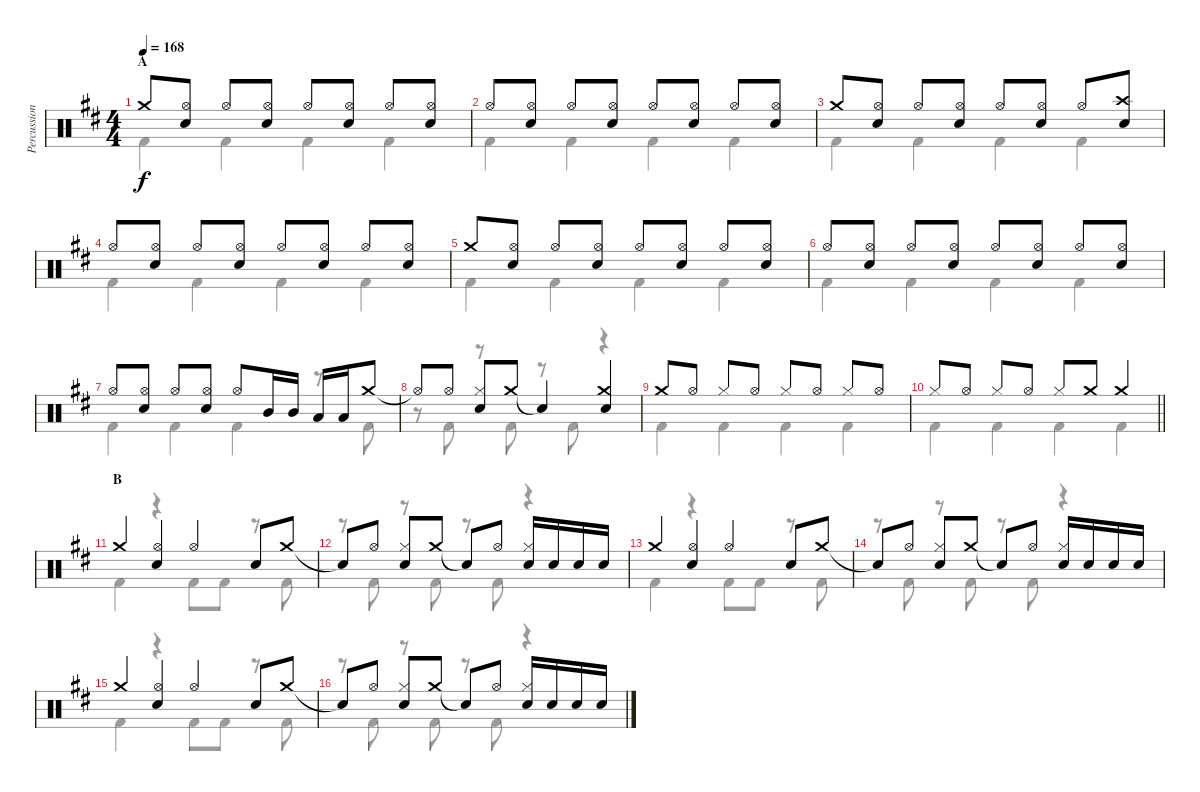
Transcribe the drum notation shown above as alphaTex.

\track ("Percussion" "Percussion") {instrument percussion}
\staff {score}
\articulation defaults
\voice
\ts (4 4)
\section ("" "A")
\tempo 168
\clef neutral
\ks d "Crash medium (hit)".8{dy f}
("Hi-Hat (open)" "Snare (hit) 2").8 "Hi-Hat (open)".8 ("Hi-Hat (open)" "Snare (hit) 2").8 "Hi-Hat (open)".8 ("Hi-Hat (open)" "Snare (hit) 2").8 "Hi-Hat (open)".8 ("Hi-Hat (open)" "Snare (hit) 2").8 |
"Hi-Hat (open)".8 ("Hi-Hat (open)" "Snare (hit) 2").8 "Hi-Hat (open)".8 ("Hi-Hat (open)" "Snare (hit) 2").8 "Hi-Hat (open)".8 ("Hi-Hat (open)" "Snare (hit) 2").8 "Hi-Hat (open)".8 ("Hi-Hat (open)" "Snare (hit) 2").8 |
"Crash medium (hit)".8 ("Hi-Hat (open)" "Snare (hit) 2").8 "Hi-Hat (open)".8 ("Hi-Hat (open)" "Snare (hit) 2").8 "Hi-Hat (open)".8 ("Hi-Hat (open)" "Snare (hit) 2").8 "Hi-Hat (open)".8 ("Crash high (hit)" "Snare (hit) 2").8 |
"Hi-Hat (open)".8 ("Hi-Hat (open)" "Snare (hit) 2").8 "Hi-Hat (open)".8 ("Hi-Hat (open)" "Snare (hit) 2").8 "Hi-Hat (open)".8 ("Hi-Hat (open)" "Snare (hit) 2").8 "Hi-Hat (open)".8 ("Hi-Hat (open)" "Snare (hit) 2").8 |
"Crash medium (hit)".8 ("Hi-Hat (open)" "Snare (hit) 2").8 "Hi-Hat (open)".8 ("Hi-Hat (open)" "Snare (hit) 2").8 "Hi-Hat (open)".8 ("Hi-Hat (open)" "Snare (hit) 2").8 "Hi-Hat (open)".8 ("Hi-Hat (open)" "Snare (hit) 2").8 |
"Hi-Hat (open)".8 ("Hi-Hat (open)" "Snare (hit) 2").8 "Hi-Hat (open)".8 ("Hi-Hat (open)" "Snare (hit) 2").8 "Hi-Hat (open)".8 ("Hi-Hat (open)" "Snare (hit) 2").8 "Hi-Hat (open)".8 ("Hi-Hat (open)" "Snare (hit) 2").8 |
"Hi-Hat (open)".8 ("Hi-Hat (open)" "Snare (hit) 2").8 "Hi-Hat (open)".8 ("Hi-Hat (open)" "Snare (hit) 2").8 "Hi-Hat (open)".8 "Mid Tom (hit)".16 "Mid Tom (hit)".16 "Low Tom (hit)".16 "Low Tom (hit)".16 "Crash medium (hit)".8 |
"Hi-Hat (open)"{t}.8 "Hi-Hat (open)".8 ("Hi-Hat (closed)" "Snare (hit) 2").8 "Crash medium (hit)".8 "Snare (hit)"{t}.4 ("Crash medium (hit)" "Snare (hit) 2").4 |
"Crash medium (hit)".8 "Hi-Hat (open)".8 "Hi-Hat (closed)".8 "Hi-Hat (open)".8 "Hi-Hat (closed)".8 "Hi-Hat (open)".8 "Hi-Hat (closed)".8 "Hi-Hat (open)".8 |
\barLineRight lightlight "Hi-Hat (closed)".8 "Hi-Hat (open)".8 "Hi-Hat (closed)".8 "Hi-Hat (open)".8 "Hi-Hat (closed)".8 "Crash medium (hit)".8 "Crash medium (hit)".4
|
\section ("" "B")
"Crash medium (hit)".4 ("Hi-Hat (open)" "Snare (hit) 2").4 "Hi-Hat (open)".4 "Snare (hit) 2".8 "Crash medium (hit)".8 |
"Snare (hit)"{t}.8 "Hi-Hat (open)".8 ("Hi-Hat (closed)" "Snare (hit) 2").8 "Crash medium (hit)".8 "Snare (hit)"{t}.8 "Hi-Hat (open)".8 ("Hi-Hat (closed)" "Snare (hit) 2").16 "Snare (hit) 2".16 "Snare (hit) 2".16 "Snare (hit) 2".16 |
"Crash medium (hit)".4 ("Hi-Hat (open)" "Snare (hit) 2").4 "Hi-Hat (open)".4 "Snare (hit) 2".8 "Crash medium (hit)".8 |
"Snare (hit)"{t}.8 "Hi-Hat (open)".8 ("Hi-Hat (closed)" "Snare (hit) 2").8 "Crash medium (hit)".8 "Snare (hit)"{t}.8 "Hi-Hat (open)".8 ("Hi-Hat (closed)" "Snare (hit) 2").16 "Snare (hit) 2".16 "Snare (hit) 2".16 "Snare (hit) 2".16 |
"Crash medium (hit)".4 ("Hi-Hat (open)" "Snare (hit) 2").4 "Hi-Hat (open)".4 "Snare (hit) 2".8 "Crash medium (hit)".8 |
"Snare (hit)"{t}.8 "Hi-Hat (open)".8 ("Hi-Hat (closed)" "Snare (hit) 2").8 "Crash medium (hit)".8 "Snare (hit)"{t}.8 "Hi-Hat (open)".8 ("Hi-Hat (closed)" "Snare (hit) 2").16 "Snare (hit) 2".16 "Snare (hit) 2".16 "Snare (hit) 2".16
\voice
\clef neutral
\ottava regular
\simile none
\ks d "Kick (hit) 2".4{dy f} "Kick (hit) 2".4 "Kick (hit) 2".4 "Kick (hit) 2".4
|
"Kick (hit) 2".4 "Kick (hit) 2".4 "Kick (hit) 2".4 "Kick (hit) 2".4 |
"Kick (hit) 2".4 "Kick (hit) 2".4 "Kick (hit) 2".4 "Kick (hit) 2".4 |
"Kick (hit) 2".4 "Kick (hit) 2".4 "Kick (hit) 2".4 "Kick (hit) 2".4 |
"Kick (hit) 2".4 "Kick (hit) 2".4 "Kick (hit) 2".4 "Kick (hit) 2".4 |
"Kick (hit) 2".4 "Kick (hit) 2".4 "Kick (hit) 2".4 "Kick (hit) 2".4 |
"Kick (hit) 2".4 "Kick (hit) 2".4 "Kick (hit) 2".4 r.8 "Kick (hit) 2".8 |
r.8 "Kick (hit) 2".8 r.8 "Kick (hit) 2".8 r.8 "Kick (hit) 2".8 r.4 |
"Kick (hit) 2".4 "Kick (hit) 2".4 "Kick (hit) 2".4 "Kick (hit) 2".4 |
\barLineRight lightlight "Kick (hit) 2".4 "Kick (hit) 2".4 "Kick (hit) 2".4 "Kick (hit) 2".4
|
"Kick (hit) 2".4 r.4 "Kick (hit) 2".8 "Kick (hit) 2".8 r.8 "Kick (hit) 2".8 |
r.8 "Kick (hit) 2".8 r.8 "Kick (hit) 2".8 r.8 "Kick (hit) 2".8 r.4 |
"Kick (hit) 2".4 r.4 "Kick (hit) 2".8 "Kick (hit) 2".8 r.8 "Kick (hit) 2".8 |
r.8 "Kick (hit) 2".8 r.8 "Kick (hit) 2".8 r.8 "Kick (hit) 2".8 r.4 |
"Kick (hit) 2".4 r.4 "Kick (hit) 2".8 "Kick (hit) 2".8 r.8 "Kick (hit) 2".8 |
r.8 "Kick (hit) 2".8 r.8 "Kick (hit) 2".8 r.8 "Kick (hit) 2".8 r.4
